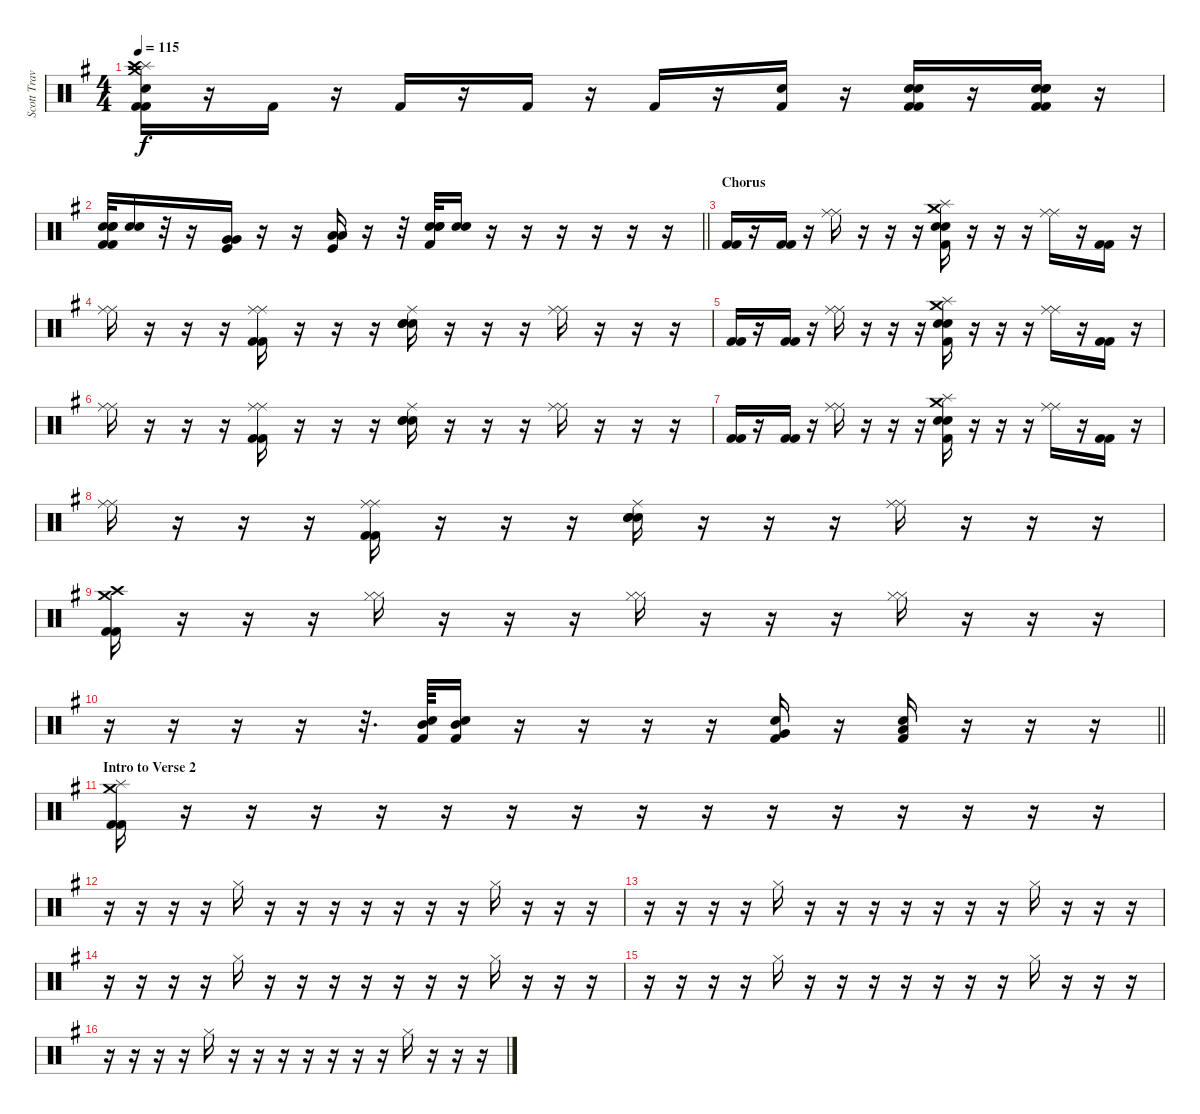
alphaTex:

\track ("Scott Travis" "Scott Trav") {instrument percussion}
\staff {score}
\articulation defaults
\ts (4 4)
\tempo 115
\clef neutral
\ks eminor
("Splash (hit)" "Crash high (hit)" "Crash medium (hit)" "Snare (hit) 2" "Kick (hit) 2" "Kick (hit) 2").16{dy f} r.16 "Kick (hit) 2".16 r.16 "Kick (hit) 2".16 r.16 "Kick (hit) 2".16 r.16 "Kick (hit) 2".16 r.16 ("Snare (hit) 2" "Kick (hit) 2").16 r.16 ("Snare (hit) 2" "Snare (hit) 2" "Kick (hit) 2" "Kick (hit) 2").16 r.16 ("Snare (hit) 2" "Snare (hit) 2" "Snare (hit) 2" "Kick (hit) 2" "Kick (hit) 2").16 r.16 |
\barLineRight lightlight
("Snare (hit) 2" "Snare (hit) 2" "Snare (hit) 2" "Kick (hit) 2" "Kick (hit) 2").32 ("Snare (hit) 2" "Snare (hit) 2").16 r.32 r.16 ("Very Low Tom (hit)" "Very Low Tom (hit)" "Kick (hit)").16 r.16 r.16 ("Low Floor Tom (hit)" "Low Floor Tom (hit)" "Kick (hit)").16 r.16 r.32 ("Snare (hit) 2" "Snare (hit) 2" "Snare (hit) 2" "Kick (hit) 2").32 ("Snare (hit) 2" "Snare (hit) 2").16 r.16 r.16 r.16 r.16 r.16 r.16 |
\section ("" "Chorus")
("Kick (hit) 2" "Kick (hit) 2").16 r.16 ("Kick (hit) 2" "Kick (hit) 2").16 r.16 ("Ride (middle)" "Ride (middle)").16 r.16 r.16 r.16 ("Crash medium (hit)" "Splash (hit)" "Snare (hit) 2" "Snare (hit) 2" "Kick (hit) 2").16 r.16 r.16 r.16 ("Ride (middle)" "Ride (middle)").16 r.16 ("Kick (hit) 2" "Kick (hit) 2").16 r.16 |
("Ride (middle)" "Ride (middle)").16 r.16 r.16 r.16 ("Ride (middle)" "Ride (middle)" "Kick (hit) 2" "Kick (hit) 2").16 r.16 r.16 r.16 ("Ride (middle)" "Snare (hit) 2" "Snare (hit) 2" "Snare (hit) 2").16 r.16 r.16 r.16 ("Ride (middle)" "Ride (middle)").16 r.16 r.16 r.16 |
("Kick (hit) 2" "Kick (hit) 2").16 r.16 ("Kick (hit) 2" "Kick (hit) 2").16 r.16 ("Ride (middle)" "Ride (middle)").16 r.16 r.16 r.16 ("Crash medium (hit)" "Splash (hit)" "Snare (hit) 2" "Snare (hit) 2" "Kick (hit) 2").16 r.16 r.16 r.16 ("Ride (middle)" "Ride (middle)").16 r.16 ("Kick (hit) 2" "Kick (hit) 2").16 r.16 |
("Ride (middle)" "Ride (middle)").16 r.16 r.16 r.16 ("Ride (middle)" "Ride (middle)" "Kick (hit) 2" "Kick (hit) 2").16 r.16 r.16 r.16 ("Ride (middle)" "Snare (hit) 2" "Snare (hit) 2" "Snare (hit) 2").16 r.16 r.16 r.16 ("Ride (middle)" "Ride (middle)").16 r.16 r.16 r.16 |
("Kick (hit) 2" "Kick (hit) 2").16 r.16 ("Kick (hit) 2" "Kick (hit) 2").16 r.16 ("Ride (middle)" "Ride (middle)").16 r.16 r.16 r.16 ("Crash medium (hit)" "Splash (hit)" "Snare (hit) 2" "Snare (hit) 2" "Kick (hit) 2").16 r.16 r.16 r.16 ("Ride (middle)" "Ride (middle)").16 r.16 ("Kick (hit) 2" "Kick (hit) 2").16 r.16 |
("Ride (middle)" "Ride (middle)").16 r.16 r.16 r.16 ("Ride (middle)" "Ride (middle)" "Kick (hit) 2" "Kick (hit) 2").16 r.16 r.16 r.16 ("Ride (middle)" "Snare (hit) 2" "Snare (hit) 2" "Snare (hit) 2").16 r.16 r.16 r.16 ("Ride (middle)" "Ride (middle)").16 r.16 r.16 r.16 |
("Crash medium (hit)" "Crash high (hit)" "Kick (hit) 2" "Kick (hit) 2").16 r.16 r.16 r.16 ("Hi-Hat (closed)" "Hi-Hat (closed)").16 r.16 r.16 r.16 ("Hi-Hat (closed)" "Hi-Hat (closed)").16 r.16 r.16 r.16 ("Hi-Hat (closed)" "Hi-Hat (closed)").16 r.16 r.16 r.16 |
\barLineRight lightlight
r.16 r.16 r.16 r.16 r.32{d} ("Mid Tom (hit)" "Electric Snare (hit)" "Kick (hit) 2").64 ("Mid Tom (hit)" "Electric Snare (hit)" "Kick (hit) 2").16 r.16 r.16 r.16 r.16 ("Very Low Tom (hit)" "Electric Snare (hit)" "Kick (hit) 2").16 r.16 ("Low Floor Tom (hit)" "Electric Snare (hit)" "Kick (hit) 2").16 r.16 r.16 r.16 |
\section ("" "Intro to Verse 2")
("Crash medium (hit)" "Splash (hit)" "Kick (hit) 2" "Kick (hit) 2").16 r.16 r.16 r.16 r.16 r.16 r.16 r.16 r.16 r.16 r.16 r.16 r.16 r.16 r.16 r.16 |
r.16 r.16 r.16 r.16 "Hi-Hat (closed)".16 r.16 r.16 r.16 r.16 r.16 r.16 r.16 "Hi-Hat (closed)".16 r.16 r.16 r.16 |
r.16 r.16 r.16 r.16 "Hi-Hat (closed)".16 r.16 r.16 r.16 r.16 r.16 r.16 r.16 "Hi-Hat (closed)".16 r.16 r.16 r.16 |
r.16 r.16 r.16 r.16 "Hi-Hat (closed)".16 r.16 r.16 r.16 r.16 r.16 r.16 r.16 "Hi-Hat (closed)".16 r.16 r.16 r.16 |
r.16 r.16 r.16 r.16 "Hi-Hat (closed)".16 r.16 r.16 r.16 r.16 r.16 r.16 r.16 "Hi-Hat (closed)".16 r.16 r.16 r.16 |
r.16 r.16 r.16 r.16 "Hi-Hat (closed)".16 r.16 r.16 r.16 r.16 r.16 r.16 r.16 "Hi-Hat (closed)".16 r.16 r.16 r.16
